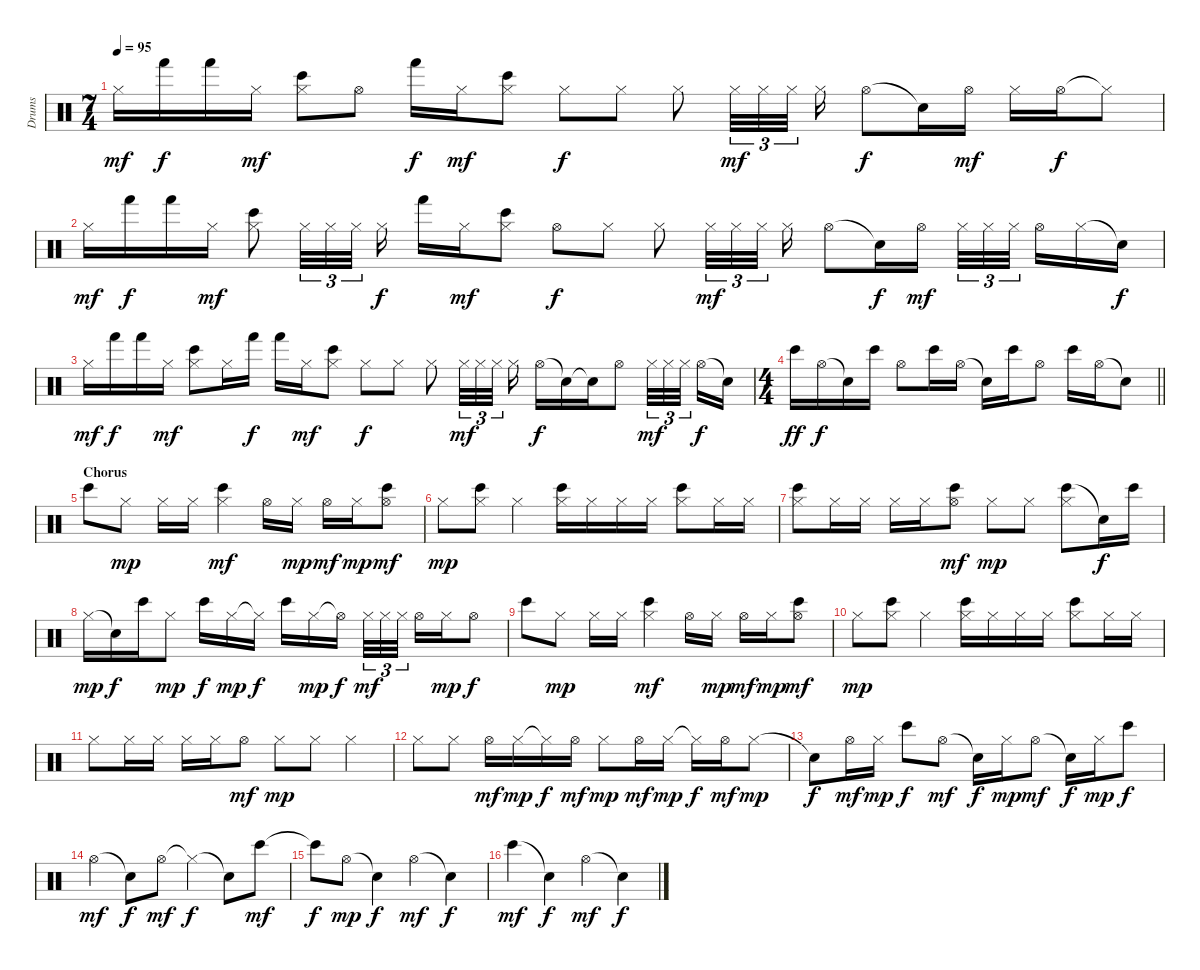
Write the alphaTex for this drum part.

\track ("Drums" "Drums") {instrument percussion}
\staff {score}
\articulation defaults
\ts (7 4)
\tempo 95
\clef neutral
\ks c "Hi-Hat (closed)".16{dy mf} "Hand (hit)".16{dy f} "Hand (hit)".16 "Hi-Hat (closed)".16{dy mf}
("Bongo High (hit)" "Hi-Hat (closed)").8 "Hi-Hat (open)".8 "Hand (hit)".16{dy f} "Hi-Hat (closed)".16{dy mf} ("Bongo High (hit)" "Hi-Hat (closed)").8 "Hi-Hat (closed)".8{dy f} "Hi-Hat (closed)".8 "Hi-Hat (closed)".8 "Hi-Hat (closed)".32{tu (3 2) dy mf} "Hi-Hat (closed)".32{tu (3 2)} "Hi-Hat (closed)".32{tu (3 2) beam splitsecondary} "Hi-Hat (closed)".16 "Hi-Hat (open)".8{dy f} "Snare (hit)"{t}.16 "Hi-Hat (open)".16{dy mf} "Hi-Hat (closed)".16 "Hi-Hat (open)".16{dy f} "Hi-Hat (closed)"{t}.8 |
"Hi-Hat (closed)".16{dy mf} "Hand (hit)".16{dy f} "Hand (hit)".16 "Hi-Hat (closed)".16{dy mf} ("Bongo High (hit)" "Hi-Hat (closed)").8 "Hi-Hat (closed)".32{tu (3 2)} "Hi-Hat (closed)".32{tu (3 2)} "Hi-Hat (closed)".32{tu (3 2) beam splitsecondary} "Hi-Hat (closed)".16{dy f} "Hand (hit)".16 "Hi-Hat (closed)".16{dy mf} ("Bongo High (hit)" "Hi-Hat (closed)").8 "Hi-Hat (open)".8{dy f} "Hi-Hat (closed)".8 "Hi-Hat (closed)".8 "Hi-Hat (closed)".32{tu (3 2) dy mf} "Hi-Hat (closed)".32{tu (3 2)} "Hi-Hat (closed)".32{tu (3 2) beam splitsecondary} "Hi-Hat (closed)".16 "Hi-Hat (open)".8 "Snare (hit)"{t}.16{dy f} "Hi-Hat (open)".16{dy mf} "Hi-Hat (closed)".32{tu (3 2)} "Hi-Hat (closed)".32{tu (3 2)} "Hi-Hat (closed)".32{tu (3 2) beam splitsecondary} "Hi-Hat (open)".16 "Hi-Hat (closed)".16 "Snare (hit)"{t}.16{dy f} |
"Hi-Hat (closed)".16{dy mf} "Hand (hit)".16{dy f} "Hand (hit)".16 "Hi-Hat (closed)".16{dy mf} ("Bongo High (hit)" "Hi-Hat (closed)").8 "Hi-Hat (closed)".16 "Hand (hit)".16{dy f} "Hand (hit)".16 "Hi-Hat (closed)".16{dy mf} ("Bongo High (hit)" "Hi-Hat (closed)").8 "Hi-Hat (closed)".8{dy f} "Hi-Hat (closed)".8 "Hi-Hat (closed)".8 "Hi-Hat (closed)".32{tu (3 2) dy mf} "Hi-Hat (closed)".32{tu (3 2)} "Hi-Hat (closed)".32{tu (3 2) beam splitsecondary} "Hi-Hat (closed)".16 "Hi-Hat (open)".16{dy f} "Snare (hit)"{t}.16 "Snare (hit)"{t}.16 "Hi-Hat (open)".8 "Hi-Hat (closed)".32{tu (3 2) dy mf} "Hi-Hat (closed)".32{tu (3 2)} "Hi-Hat (closed)".32{tu (3 2) beam splitsecondary} "Hi-Hat (open)".16{dy f} "Snare (hit)"{t}.16 |
\ts (4 4)
\barLineRight lightlight "Bongo High (hit)".16{dy ff} "Hi-Hat (open)".16{dy f} "Snare (hit)"{t}.16 "Bongo High (hit)".16 "Hi-Hat (open)".8 "Bongo High (hit)".16 "Hi-Hat (open)".16 "Snare (hit)"{t}.16 "Bongo High (hit)".16 "Hi-Hat (open)".8 "Bongo High (hit)".16 "Hi-Hat (open)".16 "Snare (hit)"{t}.8
|
\section ("" "Chorus")
"Bongo High (hit)".8 "Hi-Hat (closed)".8{dy mp} "Hi-Hat (closed)".16 "Hi-Hat (closed)".16 ("Bongo High (hit)" "Hi-Hat (closed)").4{dy mf} "Hi-Hat (open)".16 "Hi-Hat (closed)".16{dy mp} "Hi-Hat (open)".16{dy mf} "Hi-Hat (closed)".16{dy mp} ("Bongo High (hit)" "Hi-Hat (open)").8{dy mf} |
"Hi-Hat (closed)".8{dy mp} ("Bongo High (hit)" "Hi-Hat (closed)").8 "Hi-Hat (closed)".4 ("Bongo High (hit)" "Hi-Hat (closed)").16 "Hi-Hat (closed)".16 "Hi-Hat (closed)".16 "Hi-Hat (closed)".16 ("Bongo High (hit)" "Hi-Hat (closed)").8 "Hi-Hat (closed)".16 "Hi-Hat (closed)".16 |
("Bongo High (hit)" "Hi-Hat (closed)").8 "Hi-Hat (closed)".16 "Hi-Hat (closed)".16 "Hi-Hat (closed)".16 "Hi-Hat (closed)".16 ("Bongo High (hit)" "Hi-Hat (open)").8{dy mf} "Hi-Hat (closed)".8{dy mp} "Hi-Hat (closed)".8 ("Bongo High (hit)" "Hi-Hat (closed)").8 "Snare (hit)"{t}.16{dy f} "Bongo High (hit)".16 |
"Hi-Hat (closed)".16{dy mp} "Snare (hit)"{t}.16{dy f} "Bongo High (hit)".16 "Hi-Hat (closed)".8{dy mp} "Bongo High (hit)".16{dy f} "Hi-Hat (closed)".16{dy mp} "Hi-Hat (closed)"{t}.16{dy f} "Bongo High (hit)".16 "Hi-Hat (closed)".16{dy mp} "Hi-Hat (open)"{t}.16{dy f beam splitsecondary} "Hi-Hat (closed)".32{tu (3 2) dy mf} "Hi-Hat (closed)".32{tu (3 2)} "Hi-Hat (closed)".32{tu (3 2)} "Hi-Hat (open)".16 "Hi-Hat (closed)".16{dy mp} "Hi-Hat (open)".8{dy f} |
"Bongo High (hit)".8 "Hi-Hat (closed)".8{dy mp} "Hi-Hat (closed)".16 "Hi-Hat (closed)".16 ("Bongo High (hit)" "Hi-Hat (closed)").4{dy mf} "Hi-Hat (open)".16 "Hi-Hat (closed)".16{dy mp} "Hi-Hat (open)".16{dy mf} "Hi-Hat (closed)".16{dy mp} ("Bongo High (hit)" "Hi-Hat (open)").8{dy mf} |
"Hi-Hat (closed)".8{dy mp} ("Bongo High (hit)" "Hi-Hat (closed)").8 "Hi-Hat (closed)".4 ("Bongo High (hit)" "Hi-Hat (closed)").16 "Hi-Hat (closed)".16 "Hi-Hat (closed)".16 "Hi-Hat (closed)".16 ("Bongo High (hit)" "Hi-Hat (closed)").8 "Hi-Hat (closed)".16 "Hi-Hat (closed)".16 |
"Hi-Hat (closed)".8 "Hi-Hat (closed)".16 "Hi-Hat (closed)".16 "Hi-Hat (closed)".16 "Hi-Hat (closed)".16 "Hi-Hat (open)".8{dy mf} "Hi-Hat (closed)".8{dy mp} "Hi-Hat (closed)".8 "Hi-Hat (closed)".4 |
"Hi-Hat (closed)".8 "Hi-Hat (closed)".8 "Hi-Hat (open)".16{dy mf} "Hi-Hat (closed)".16{dy mp} "Hi-Hat (closed)"{t}.16{dy f} "Hi-Hat (open)".16{dy mf} "Hi-Hat (closed)".8{dy mp} "Hi-Hat (open)".16{dy mf} "Hi-Hat (closed)".16{dy mp} "Hi-Hat (closed)"{t}.16{dy f} "Hi-Hat (open)".16{dy mf} "Hi-Hat (closed)".8{dy mp} |
"Snare (hit)"{t}.8{dy f} "Hi-Hat (open)".16{dy mf} "Hi-Hat (closed)".16{dy mp} "Bongo High (hit)".8{dy f} "Hi-Hat (open)".8{dy mf} "Snare (hit)"{t}.16{dy f} "Hi-Hat (closed)".16{dy mp} "Hi-Hat (open)".8{dy mf} "Snare (hit)"{t}.16{dy f} "Hi-Hat (closed)".16{dy mp} "Bongo High (hit)".8{dy f} |
"Hi-Hat (open)".4{dy mf} "Snare (hit)"{t}.8{dy f} "Hi-Hat (open)".8{dy mf} "Hi-Hat (closed)"{t}.4{dy f} "Snare (hit)"{t}.8 "Bongo High (hit)".8{dy mf} |
"Bongo High (hit)"{t}.8{dy f} "Hi-Hat (open)".8{dy mp} "Snare (hit)"{t}.4{dy f} "Hi-Hat (open)".4{dy mf} "Snare (hit)"{t}.4{dy f} |
"Bongo High (hit)".4{dy mf} "Snare (hit)"{t}.4{dy f} "Hi-Hat (open)".4{dy mf} "Snare (hit)"{t}.4{dy f}
